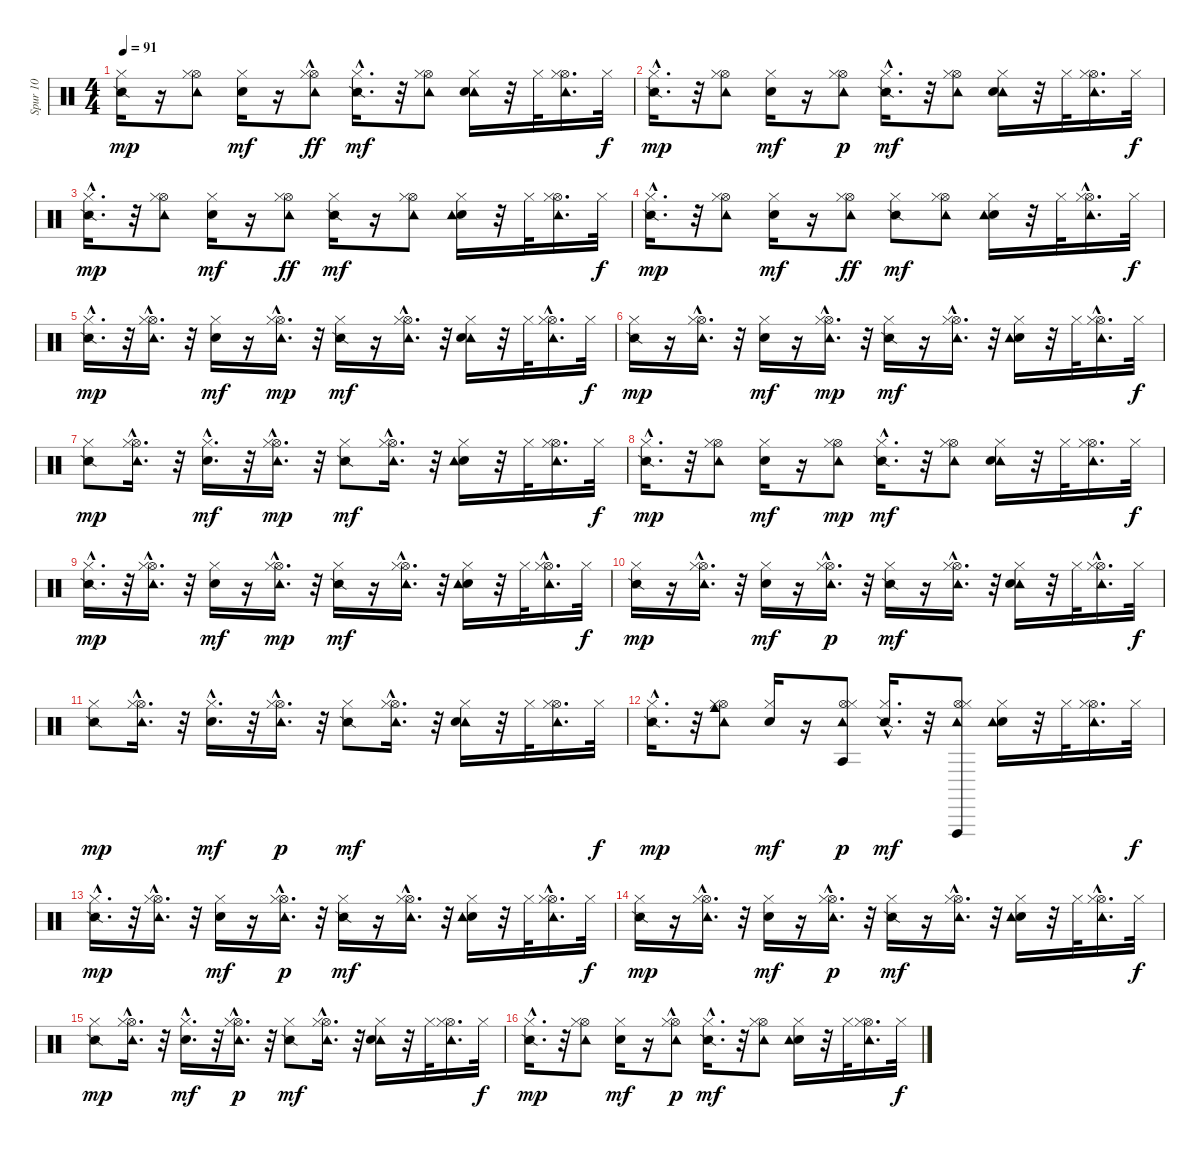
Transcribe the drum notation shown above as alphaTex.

\track ("Spur 10" "Spur 10") {instrument percussion}
\staff {score}
\articulation defaults
\ts (4 4)
\tempo 91
\clef neutral
\ks c
("Snare (side stick) 2" "Hi-Hat (closed)").16{dy mp} r.16 ("Tambourine (hit)" "Hi-Hat (open)" "Hi-Hat (closed)").8 ("Electric Snare (hit)" "Hi-Hat (closed)").16{dy mf} r.16 ("Tambourine (hit)"{hac} "Hi-Hat (open)" "Hi-Hat (closed)").8{dy ff} ("Snare (side stick) 2"{hac} "Hi-Hat (closed)").16{d dy mf} r.32 ("Tambourine (hit)" "Hi-Hat (open)" "Hi-Hat (closed)").8 ("Tambourine (hit)" "Electric Snare (hit)" "Hi-Hat (closed)").16 r.32 "Hi-Hat (closed)".32 ("Tambourine (hit)" "Hi-Hat (open)" "Hi-Hat (closed)").16{d} "Hi-Hat (closed)".32{dy f} |
("Snare (side stick) 2"{hac} "Hi-Hat (closed)").16{d dy mp} r.32 ("Tambourine (hit)" "Hi-Hat (open)" "Hi-Hat (closed)").8 ("Electric Snare (hit)" "Hi-Hat (closed)").16{dy mf} r.16 ("Tambourine (hit)" "Hi-Hat (open)" "Hi-Hat (closed)").8{dy p} ("Snare (side stick) 2"{hac} "Hi-Hat (closed)").16{d dy mf} r.32 ("Tambourine (hit)" "Hi-Hat (open)" "Hi-Hat (closed)").8 ("Tambourine (hit)" "Electric Snare (hit)" "Hi-Hat (closed)").16 r.32 "Hi-Hat (closed)".32 ("Tambourine (hit)" "Hi-Hat (open)" "Hi-Hat (closed)").16{d} "Hi-Hat (closed)".32{dy f} |
("Snare (side stick) 2"{hac} "Hi-Hat (closed)").16{d dy mp} r.32 ("Tambourine (hit)" "Hi-Hat (open)" "Hi-Hat (closed)").8 ("Electric Snare (hit)" "Hi-Hat (closed)").16{dy mf} r.16 ("Tambourine (hit)" "Hi-Hat (open)" "Hi-Hat (closed)").8{dy ff} ("Snare (side stick) 2" "Hi-Hat (closed)").16{dy mf} r.16 ("Tambourine (hit)" "Hi-Hat (open)" "Hi-Hat (closed)").8 ("Electric Snare (hit)" "Tambourine (hit)" "Hi-Hat (closed)").16 r.32 "Hi-Hat (closed)".32 ("Tambourine (hit)" "Hi-Hat (open)" "Hi-Hat (closed)").16{d} "Hi-Hat (closed)".32{dy f} |
("Snare (side stick) 2"{hac} "Hi-Hat (closed)").16{d dy mp} r.32 ("Tambourine (hit)" "Hi-Hat (open)" "Hi-Hat (closed)").8 ("Electric Snare (hit)" "Hi-Hat (closed)").16{dy mf} r.16 ("Tambourine (hit)" "Hi-Hat (open)" "Hi-Hat (closed)").8{dy ff} ("Snare (side stick) 2" "Hi-Hat (closed)").8{dy mf} ("Tambourine (hit)" "Hi-Hat (open)" "Hi-Hat (closed)").8 ("Electric Snare (hit)" "Tambourine (hit)" "Hi-Hat (closed)").16 r.32 "Hi-Hat (closed)".32 ("Tambourine (hit)" "Hi-Hat (open)"{hac} "Hi-Hat (closed)").16{d} "Hi-Hat (closed)".32{dy f} |
("Snare (side stick) 2"{hac} "Hi-Hat (closed)").16{d dy mp} r.32 ("Tambourine (hit)" "Hi-Hat (open)"{hac} "Hi-Hat (closed)").16{d} r.32 ("Electric Snare (hit)" "Hi-Hat (closed)").16{dy mf} r.16 ("Tambourine (hit)" "Hi-Hat (open)"{hac} "Hi-Hat (closed)").16{d dy mp} r.32 ("Snare (side stick) 2" "Hi-Hat (closed)").16{dy mf} r.16 ("Tambourine (hit)" "Hi-Hat (open)"{hac} "Hi-Hat (closed)").16{d} r.32 ("Tambourine (hit)" "Electric Snare (hit)" "Hi-Hat (closed)").16 r.32 "Hi-Hat (closed)".32 ("Tambourine (hit)" "Hi-Hat (open)"{hac} "Hi-Hat (closed)").16{d} "Hi-Hat (closed)".32{dy f} |
("Snare (side stick) 2" "Hi-Hat (closed)").16{dy mp} r.16 ("Tambourine (hit)" "Hi-Hat (open)"{hac} "Hi-Hat (closed)").16{d} r.32 ("Electric Snare (hit)" "Hi-Hat (closed)").16{dy mf} r.16 ("Tambourine (hit)" "Hi-Hat (open)"{hac} "Hi-Hat (closed)").16{d dy mp} r.32 ("Snare (side stick) 2" "Hi-Hat (closed)").16{dy mf} r.16 ("Tambourine (hit)" "Hi-Hat (open)"{hac} "Hi-Hat (closed)").16{d} r.32 ("Electric Snare (hit)" "Tambourine (hit)" "Hi-Hat (closed)").16 r.32 "Hi-Hat (closed)".32 ("Tambourine (hit)" "Hi-Hat (open)"{hac} "Hi-Hat (closed)").16{d} "Hi-Hat (closed)".32{dy f} |
("Snare (side stick) 2" "Hi-Hat (closed)").8{dy mp} ("Tambourine (hit)" "Hi-Hat (open)"{hac} "Hi-Hat (closed)").16{d} r.32 ("Electric Snare (hit)"{hac} "Hi-Hat (closed)").16{d dy mf} r.32 ("Tambourine (hit)" "Hi-Hat (open)"{hac} "Hi-Hat (closed)").16{d dy mp} r.32 ("Snare (side stick) 2" "Hi-Hat (closed)").8{dy mf} ("Tambourine (hit)" "Hi-Hat (open)"{hac} "Hi-Hat (closed)").16{d} r.32 ("Electric Snare (hit)" "Tambourine (hit)" "Hi-Hat (closed)").16 r.32 "Hi-Hat (closed)".32 ("Tambourine (hit)" "Hi-Hat (open)" "Hi-Hat (closed)").16{d} "Hi-Hat (closed)".32{dy f} |
("Snare (side stick) 2"{hac} "Hi-Hat (closed)").16{d dy mp} r.32 ("Tambourine (hit)" "Hi-Hat (open)" "Hi-Hat (closed)").8 ("Electric Snare (hit)" "Hi-Hat (closed)").16{dy mf} r.16 ("Tambourine (hit)" "Hi-Hat (open)" "Hi-Hat (closed)").8{dy mp} ("Snare (side stick) 2"{hac} "Hi-Hat (closed)").16{d dy mf} r.32 ("Tambourine (hit)" "Hi-Hat (open)" "Hi-Hat (closed)").8 ("Tambourine (hit)" "Electric Snare (hit)" "Hi-Hat (closed)").16 r.32 "Hi-Hat (closed)".32 ("Tambourine (hit)" "Hi-Hat (open)" "Hi-Hat (closed)").16{d} "Hi-Hat (closed)".32{dy f} |
("Snare (side stick) 2"{hac} "Hi-Hat (closed)").16{d dy mp} r.32 ("Tambourine (hit)" "Hi-Hat (open)"{hac} "Hi-Hat (closed)").16{d} r.32 ("Electric Snare (hit)" "Hi-Hat (closed)").16{dy mf} r.16 ("Tambourine (hit)" "Hi-Hat (open)"{hac} "Hi-Hat (closed)").16{d dy mp} r.32 ("Snare (side stick) 2" "Hi-Hat (closed)").16{dy mf} r.16 ("Tambourine (hit)" "Hi-Hat (open)"{hac} "Hi-Hat (closed)").16{d} r.32 ("Electric Snare (hit)" "Tambourine (hit)" "Hi-Hat (closed)").16 r.32 "Hi-Hat (closed)".32 ("Tambourine (hit)" "Hi-Hat (open)"{hac} "Hi-Hat (closed)").16{d} "Hi-Hat (closed)".32{dy f} |
("Snare (side stick) 2" "Hi-Hat (closed)").16{dy mp} r.16 ("Tambourine (hit)" "Hi-Hat (open)"{hac} "Hi-Hat (closed)").16{d} r.32 ("Electric Snare (hit)" "Hi-Hat (closed)").16{dy mf} r.16 ("Tambourine (hit)" "Hi-Hat (open)"{hac} "Hi-Hat (closed)").16{d dy p} r.32 ("Snare (side stick) 2" "Hi-Hat (closed)").16{dy mf} r.16 ("Tambourine (hit)" "Hi-Hat (open)"{hac} "Hi-Hat (closed)").16{d} r.32 ("Tambourine (hit)" "Electric Snare (hit)" "Hi-Hat (closed)").16 r.32 "Hi-Hat (closed)".32 ("Tambourine (hit)" "Hi-Hat (open)"{hac} "Hi-Hat (closed)").16{d} "Hi-Hat (closed)".32{dy f} |
("Snare (side stick) 2" "Hi-Hat (closed)").8{dy mp} ("Tambourine (hit)" "Hi-Hat (open)"{hac} "Hi-Hat (closed)").16{d} r.32 ("Electric Snare (hit)"{hac} "Hi-Hat (closed)").16{d dy mf} r.32 ("Tambourine (hit)" "Hi-Hat (open)"{hac} "Hi-Hat (closed)").16{d dy p} r.32 ("Snare (side stick) 2" "Hi-Hat (closed)").8{dy mf} ("Tambourine (hit)" "Hi-Hat (open)"{hac} "Hi-Hat (closed)").16{d} r.32 ("Tambourine (hit)" "Electric Snare (hit)" "Hi-Hat (closed)").16 r.32 "Hi-Hat (closed)".32 ("Tambourine (hit)" "Hi-Hat (open)" "Hi-Hat (closed)").16{d} "Hi-Hat (closed)".32{dy f} |
("Snare (side stick) 2"{hac} "Hi-Hat (closed)").16{d dy mp} r.32 ("Tambourine (hit)" "Hi-Hat (open)" "Cowbell medium (hit)" "Hi-Hat (closed)").8 ("Electric Snare (hit)" "Hi-Hat (closed)").16{dy mf} r.16 ("Tambourine (hit)" "Hi-Hat (open)" "Hi-Hat (closed)" "Agogo tow (hit)").8{dy p} ("Snare (side stick) 2"{hac} "Hi-Hat (closed)").16{d dy mf} r.32 ("Tambourine (hit)" "Vibraslap (hit)" "Hi-Hat (open)" "Hi-Hat (closed)").8 ("Electric Snare (hit)" "Tambourine (hit)" "Hi-Hat (closed)").16 r.32 "Hi-Hat (closed)".32 ("Tambourine (hit)" "Hi-Hat (open)" "Hi-Hat (closed)").16{d} "Hi-Hat (closed)".32{dy f} |
("Snare (side stick) 2"{hac} "Hi-Hat (closed)").16{d dy mp} r.32 ("Tambourine (hit)" "Hi-Hat (open)"{hac} "Hi-Hat (closed)").16{d} r.32 ("Electric Snare (hit)" "Hi-Hat (closed)").16{dy mf} r.16 ("Tambourine (hit)"{hac} "Hi-Hat (open)"{hac} "Hi-Hat (closed)").16{d dy p} r.32 ("Snare (side stick) 2" "Hi-Hat (closed)").16{dy mf} r.16 ("Tambourine (hit)" "Hi-Hat (open)"{hac} "Hi-Hat (closed)").16{d} r.32 ("Electric Snare (hit)" "Tambourine (hit)" "Hi-Hat (closed)").16 r.32 "Hi-Hat (closed)".32 ("Tambourine (hit)" "Hi-Hat (open)"{hac} "Hi-Hat (closed)").16{d} "Hi-Hat (closed)".32{dy f} |
("Snare (side stick) 2" "Hi-Hat (closed)").16{dy mp} r.16 ("Tambourine (hit)" "Hi-Hat (open)"{hac} "Hi-Hat (closed)").16{d} r.32 ("Electric Snare (hit)" "Hi-Hat (closed)").16{dy mf} r.16 ("Tambourine (hit)" "Hi-Hat (open)"{hac} "Hi-Hat (closed)").16{d dy p} r.32 ("Snare (side stick) 2" "Hi-Hat (closed)").16{dy mf} r.16 ("Tambourine (hit)" "Hi-Hat (open)"{hac} "Hi-Hat (closed)").16{d} r.32 ("Electric Snare (hit)" "Tambourine (hit)" "Hi-Hat (closed)").16 r.32 "Hi-Hat (closed)".32 ("Tambourine (hit)" "Hi-Hat (open)"{hac} "Hi-Hat (closed)").16{d} "Hi-Hat (closed)".32{dy f} |
("Snare (side stick) 2" "Hi-Hat (closed)").8{dy mp} ("Tambourine (hit)" "Hi-Hat (open)"{hac} "Hi-Hat (closed)").16{d} r.32 ("Electric Snare (hit)"{hac} "Hi-Hat (closed)").16{d dy mf} r.32 ("Tambourine (hit)" "Hi-Hat (open)"{hac} "Hi-Hat (closed)").16{d dy p} r.32 ("Snare (side stick) 2" "Hi-Hat (closed)").8{dy mf} ("Tambourine (hit)" "Hi-Hat (open)"{hac} "Hi-Hat (closed)").16{d} r.32 ("Tambourine (hit)" "Electric Snare (hit)" "Hi-Hat (closed)").16 r.32 "Hi-Hat (closed)".32 ("Tambourine (hit)" "Hi-Hat (open)" "Hi-Hat (closed)").16{d} "Hi-Hat (closed)".32{dy f} |
("Snare (side stick) 2"{hac} "Hi-Hat (closed)").16{d dy mp} r.32 ("Tambourine (hit)" "Hi-Hat (open)" "Hi-Hat (closed)").8 ("Electric Snare (hit)" "Hi-Hat (closed)").16{dy mf} r.16 ("Tambourine (hit)"{hac} "Hi-Hat (open)" "Hi-Hat (closed)").8{dy p} ("Snare (side stick) 2"{hac} "Hi-Hat (closed)").16{d dy mf} r.32 ("Tambourine (hit)" "Hi-Hat (open)" "Hi-Hat (closed)").8 ("Electric Snare (hit)" "Tambourine (hit)" "Hi-Hat (closed)").16 r.32 "Hi-Hat (closed)".32 ("Tambourine (hit)" "Hi-Hat (open)" "Hi-Hat (closed)").16{d} "Hi-Hat (closed)".32{dy f}
